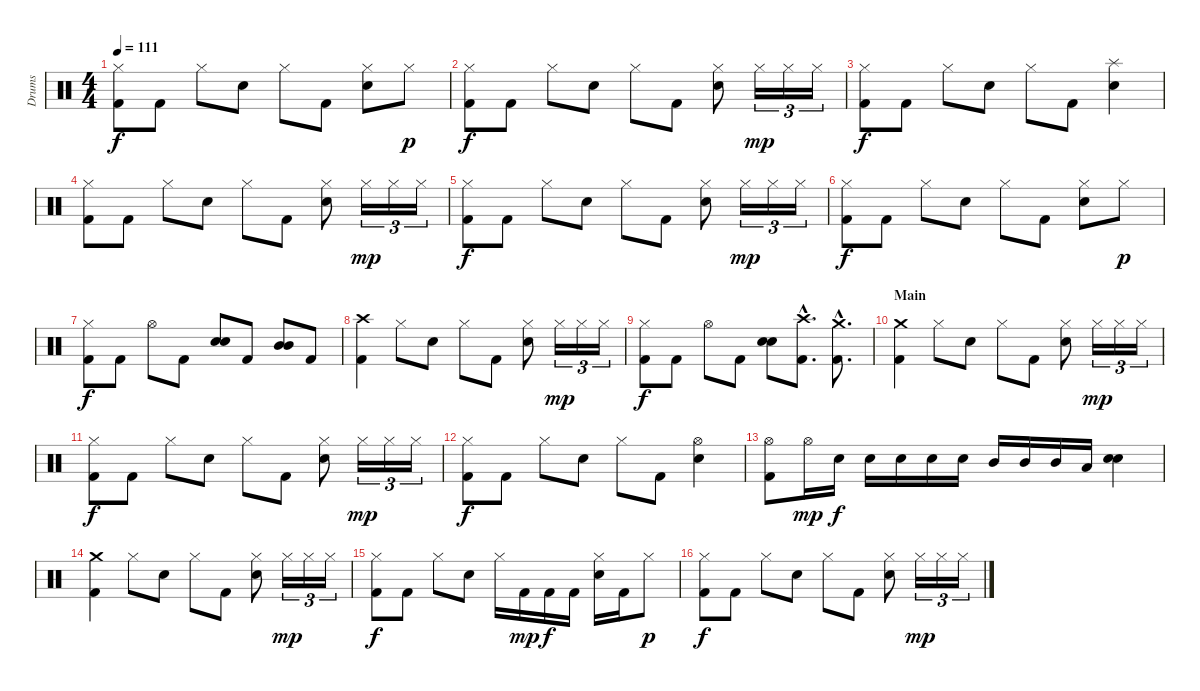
\track ("Drums" "Drums") {instrument percussion}
\staff {score}
\articulation defaults
\ts (4 4)
\tempo 111
\clef neutral
\ks c
("Hi-Hat (closed)" "Kick (hit) 2").8{dy f} "Kick (hit) 2".8 "Hi-Hat (closed)".8 "Electric Snare (hit)".8 "Hi-Hat (closed)".8 "Kick (hit) 2".8 ("Hi-Hat (closed)" "Electric Snare (hit)").8 "Hi-Hat (closed)".8{dy p} |
("Hi-Hat (closed)" "Kick (hit) 2").8{dy f} "Kick (hit) 2".8 "Hi-Hat (closed)".8 "Electric Snare (hit)".8 "Hi-Hat (closed)".8 "Kick (hit) 2".8 ("Hi-Hat (closed)" "Electric Snare (hit)").8 "Hi-Hat (closed)".16{tu (3 2) dy mp} "Hi-Hat (closed)".16{tu (3 2)} "Hi-Hat (closed)".16{tu (3 2)} |
("Hi-Hat (closed)" "Kick (hit) 2").8{dy f} "Kick (hit) 2".8 "Hi-Hat (closed)".8 "Electric Snare (hit)".8 "Hi-Hat (closed)".8 "Kick (hit) 2".8 ("Splash (hit)" "Electric Snare (hit)").4 |
("Hi-Hat (closed)" "Kick (hit) 2").8 "Kick (hit) 2".8 "Hi-Hat (closed)".8 "Electric Snare (hit)".8 "Hi-Hat (closed)".8 "Kick (hit) 2".8 ("Hi-Hat (closed)" "Electric Snare (hit)").8 "Hi-Hat (closed)".16{tu (3 2) dy mp} "Hi-Hat (closed)".16{tu (3 2)} "Hi-Hat (closed)".16{tu (3 2)} |
("Hi-Hat (closed)" "Kick (hit) 2").8{dy f} "Kick (hit) 2".8 "Hi-Hat (closed)".8 "Electric Snare (hit)".8 "Hi-Hat (closed)".8 "Kick (hit) 2".8 ("Hi-Hat (closed)" "Electric Snare (hit)").8 "Hi-Hat (closed)".16{tu (3 2) dy mp} "Hi-Hat (closed)".16{tu (3 2)} "Hi-Hat (closed)".16{tu (3 2)} |
("Hi-Hat (closed)" "Kick (hit) 2").8{dy f} "Kick (hit) 2".8 "Hi-Hat (closed)".8 "Electric Snare (hit)".8 "Hi-Hat (closed)".8 "Kick (hit) 2".8 ("Hi-Hat (closed)" "Electric Snare (hit)").8 "Hi-Hat (closed)".8{dy p} |
("Hi-Hat (closed)" "Kick (hit) 2").8{dy f} "Kick (hit) 2".8 "Hi-Hat (open)".8 "Kick (hit) 2".8 ("Electric Snare (hit)" "Electric Snare (hit)").8{bd 120} "Kick (hit) 2".8 ("Mid Tom (hit)" "Mid Tom (hit)").8{bd 120} "Kick (hit) 2".8 |
("Crash high (hit)" "Kick (hit) 2").4 "Hi-Hat (closed)".8 "Electric Snare (hit)".8 "Hi-Hat (closed)".8 "Kick (hit) 2".8 ("Hi-Hat (closed)" "Electric Snare (hit)").8 "Hi-Hat (closed)".16{tu (3 2) dy mp} "Hi-Hat (closed)".16{tu (3 2)} "Hi-Hat (closed)".16{tu (3 2)} |
("Hi-Hat (closed)" "Kick (hit) 2").8{dy f} "Kick (hit) 2".8 "Hi-Hat (open)".8 "Kick (hit) 2".8 ("Electric Snare (hit)" "Electric Snare (hit)").8{bd 120} ("Crash high (hit)"{hac} "Kick (hit) 2"{hac}).8{d} ("Crash medium (hit)"{hac} "Kick (hit) 2"{hac}).8{d} |
\section ("" "Main")
("Crash medium (hit)" "Kick (hit) 2").4 "Hi-Hat (closed)".8 "Electric Snare (hit)".8 "Hi-Hat (closed)".8 "Kick (hit) 2".8 ("Hi-Hat (closed)" "Electric Snare (hit)").8 "Hi-Hat (closed)".16{tu (3 2) dy mp} "Hi-Hat (closed)".16{tu (3 2)} "Hi-Hat (closed)".16{tu (3 2)} |
("Hi-Hat (closed)" "Kick (hit) 2").8{dy f} "Kick (hit) 2".8 "Hi-Hat (closed)".8 "Electric Snare (hit)".8 "Hi-Hat (closed)".8 "Kick (hit) 2".8 ("Hi-Hat (closed)" "Electric Snare (hit)").8 "Hi-Hat (closed)".16{tu (3 2) dy mp} "Hi-Hat (closed)".16{tu (3 2)} "Hi-Hat (closed)".16{tu (3 2)} |
("Hi-Hat (closed)" "Kick (hit) 2").8{dy f} "Kick (hit) 2".8 "Hi-Hat (closed)".8 "Electric Snare (hit)".8 "Hi-Hat (closed)".8 "Kick (hit) 2".8 ("Hi-Hat (open)" "Electric Snare (hit)").4 |
("Hi-Hat (open)" "Kick (hit) 2").8 "Hi-Hat (open)".16{dy mp} "Electric Snare (hit)".16{dy f} "Electric Snare (hit)".16 "Electric Snare (hit)".16 "Electric Snare (hit)".16 "Electric Snare (hit)".16 "Mid Tom (hit)".16 "Mid Tom (hit)".16 "Mid Tom (hit)".16 "Low Tom (hit)".16 ("Electric Snare (hit)" "Electric Snare (hit)").4{bd 120} |
("Crash medium (hit)" "Kick (hit) 2").4 "Hi-Hat (closed)".8 "Electric Snare (hit)".8 "Hi-Hat (closed)".8 "Kick (hit) 2".8 ("Hi-Hat (closed)" "Electric Snare (hit)").8 "Hi-Hat (closed)".16{tu (3 2) dy mp} "Hi-Hat (closed)".16{tu (3 2)} "Hi-Hat (closed)".16{tu (3 2)} |
("Hi-Hat (closed)" "Kick (hit) 2").8{dy f} "Kick (hit) 2".8 "Hi-Hat (closed)".8 "Electric Snare (hit)".8 "Hi-Hat (closed)".16 "Kick (hit) 2".16{dy mp} "Kick (hit) 2".16{dy f} "Kick (hit) 2".16 ("Hi-Hat (closed)" "Electric Snare (hit)").16 "Kick (hit) 2".16 "Hi-Hat (closed)".8{dy p} |
("Hi-Hat (closed)" "Kick (hit) 2").8{dy f} "Kick (hit) 2".8 "Hi-Hat (closed)".8 "Electric Snare (hit)".8 "Hi-Hat (closed)".8 "Kick (hit) 2".8 ("Hi-Hat (closed)" "Electric Snare (hit)").8 "Hi-Hat (closed)".16{tu (3 2) dy mp} "Hi-Hat (closed)".16{tu (3 2)} "Hi-Hat (closed)".16{tu (3 2)}
